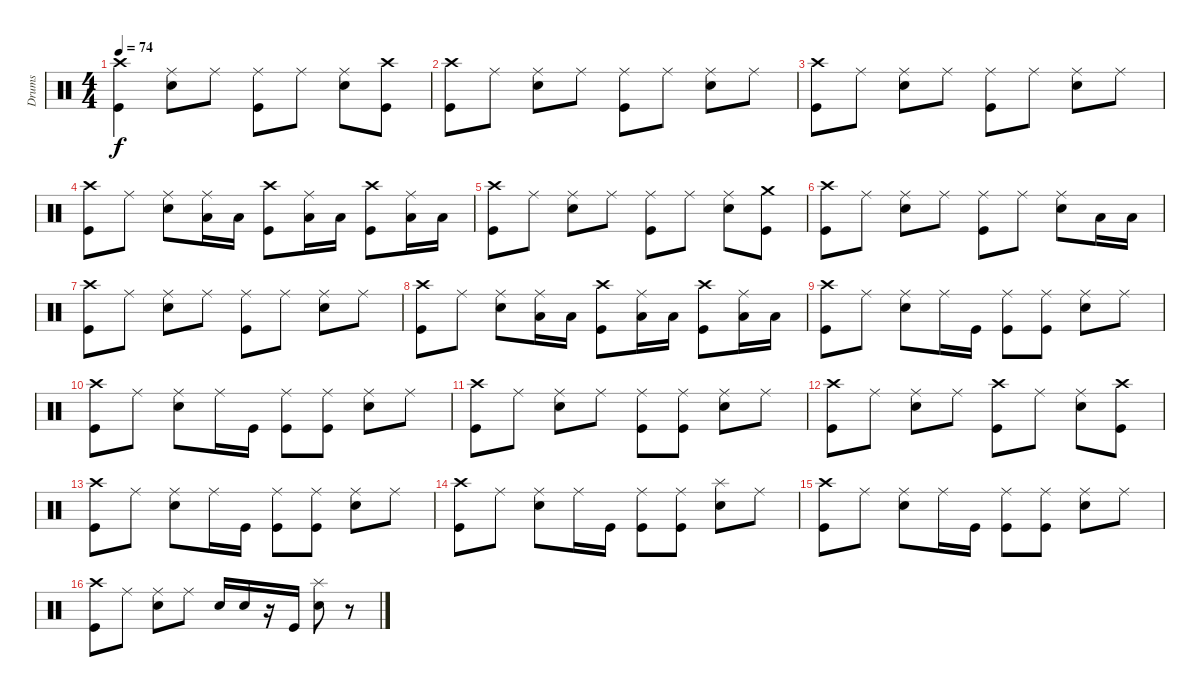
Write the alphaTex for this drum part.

\track ("Drums" "Drums") {instrument percussion}
\staff {score}
\articulation defaults
\ts (4 4)
\tempo 74
\clef neutral
\ks c
("Crash high (hit)" "Kick (hit)").4{dy f} ("Ride (middle)" "Electric Snare (hit)").8 "Ride (middle)".8 ("Ride (middle)" "Kick (hit)").8 "Ride (middle)".8 ("Ride (middle)" "Electric Snare (hit)").8 ("Crash high (hit)" "Kick (hit)").8 |
("Crash high (hit)" "Kick (hit)").8 "Ride (middle)".8 ("Ride (middle)" "Electric Snare (hit)").8 "Ride (middle)".8 ("Ride (middle)" "Kick (hit)").8 "Ride (middle)".8 ("Ride (middle)" "Electric Snare (hit)").8 "Ride (middle)".8 |
("Crash high (hit)" "Kick (hit)").8 "Ride (middle)".8 ("Ride (middle)" "Electric Snare (hit)").8 "Ride (middle)".8 ("Ride (middle)" "Kick (hit)").8 "Ride (middle)".8 ("Ride (middle)" "Electric Snare (hit)").8 "Ride (middle)".8 |
("Crash high (hit)" "Kick (hit)").8 "Ride (middle)".8 ("Ride (middle)" "Electric Snare (hit)").8 ("Ride (middle)" "Low Floor Tom (hit)").16 "Low Floor Tom (hit)".16 ("Crash high (hit)" "Kick (hit)").8 ("Ride (middle)" "Low Floor Tom (hit)").16 "Low Floor Tom (hit)".16 ("Crash high (hit)" "Kick (hit)").8 ("Ride (middle)" "Low Floor Tom (hit)").16 "Low Floor Tom (hit)".16 |
("Crash high (hit)" "Kick (hit)").8 "Ride (middle)".8 ("Ride (middle)" "Electric Snare (hit)").8 "Ride (middle)".8 ("Ride (middle)" "Kick (hit)").8 "Ride (middle)".8 ("Ride (middle)" "Electric Snare (hit)").8 ("Crash medium (hit)" "Kick (hit)").8 |
("Crash high (hit)" "Kick (hit)").8 "Ride (middle)".8 ("Ride (middle)" "Electric Snare (hit)").8 "Ride (middle)".8 ("Ride (middle)" "Kick (hit)").8 "Ride (middle)".8 ("Ride (middle)" "Electric Snare (hit)").8 "Low Tom (hit)".16 "Low Tom (hit)".16 |
("Crash high (hit)" "Kick (hit)").8 "Ride (middle)".8 ("Ride (middle)" "Electric Snare (hit)").8 "Ride (middle)".8 ("Ride (middle)" "Kick (hit)").8 "Ride (middle)".8 ("Ride (middle)" "Electric Snare (hit)").8 "Ride (middle)".8 |
("Crash high (hit)" "Kick (hit)").8 "Ride (middle)".8 ("Ride (middle)" "Electric Snare (hit)").8 ("Ride (middle)" "Low Floor Tom (hit)").16 "Low Floor Tom (hit)".16 ("Crash high (hit)" "Kick (hit)").8 ("Ride (middle)" "Low Floor Tom (hit)").16 "Low Floor Tom (hit)".16 ("Crash high (hit)" "Kick (hit)").8 ("Ride (middle)" "Low Floor Tom (hit)").16 "Low Floor Tom (hit)".16 |
("Crash high (hit)" "Kick (hit)").8 "Ride (middle)".8 ("Ride (middle)" "Electric Snare (hit)").8 "Ride (middle)".16 "Kick (hit)".16 ("Ride (middle)" "Kick (hit)").8 ("Ride (middle)" "Kick (hit)").8 ("Ride (middle)" "Electric Snare (hit)").8 "Ride (middle)".8 |
("Crash high (hit)" "Kick (hit)").8 "Ride (middle)".8 ("Ride (middle)" "Electric Snare (hit)").8 "Ride (middle)".16 "Kick (hit)".16 ("Ride (middle)" "Kick (hit)").8 ("Ride (middle)" "Kick (hit)").8 ("Ride (middle)" "Electric Snare (hit)").8 "Ride (middle)".8 |
("Crash high (hit)" "Kick (hit)").8 "Ride (middle)".8 ("Ride (middle)" "Electric Snare (hit)").8 "Ride (middle)".8 ("Ride (middle)" "Kick (hit)").8 ("Ride (middle)" "Kick (hit)").8 ("Ride (middle)" "Electric Snare (hit)").8 "Ride (middle)".8 |
("Crash high (hit)" "Kick (hit)").8 "Ride (middle)".8 ("Ride (middle)" "Electric Snare (hit)").8 "Ride (middle)".8 ("Crash high (hit)" "Kick (hit)").8 "Ride (middle)".8 ("Ride (middle)" "Electric Snare (hit)").8 ("Crash high (hit)" "Kick (hit)").8 |
("Crash high (hit)" "Kick (hit)").8 "Ride (middle)".8 ("Ride (middle)" "Electric Snare (hit)").8 "Ride (middle)".16 "Kick (hit)".16 ("Ride (middle)" "Kick (hit)").8 ("Ride (middle)" "Kick (hit)").8 ("Ride (middle)" "Electric Snare (hit)").8 "Ride (middle)".8 |
("Crash high (hit)" "Kick (hit)").8 "Ride (middle)".8 ("Ride (middle)" "Electric Snare (hit)").8 "Ride (middle)".16 "Kick (hit)".16 ("Ride (middle)" "Kick (hit)").8 ("Ride (middle)" "Kick (hit)").8 ("Splash (hit)" "Electric Snare (hit)").8 "Ride (middle)".8 |
("Crash high (hit)" "Kick (hit)").8 "Ride (middle)".8 ("Ride (middle)" "Electric Snare (hit)").8 "Ride (middle)".16 "Kick (hit)".16 ("Ride (middle)" "Kick (hit)").8 ("Ride (middle)" "Kick (hit)").8 ("Ride (middle)" "Electric Snare (hit)").8 "Ride (middle)".8 |
("Crash high (hit)" "Kick (hit)").8 "Ride (middle)".8 ("Ride (middle)" "Electric Snare (hit)").8 "Ride (middle)".8 "Electric Snare (hit)".16 "Electric Snare (hit)".16 r.16 "Kick (hit)".16 ("Splash (hit)" "Electric Snare (hit)").8 r.8
